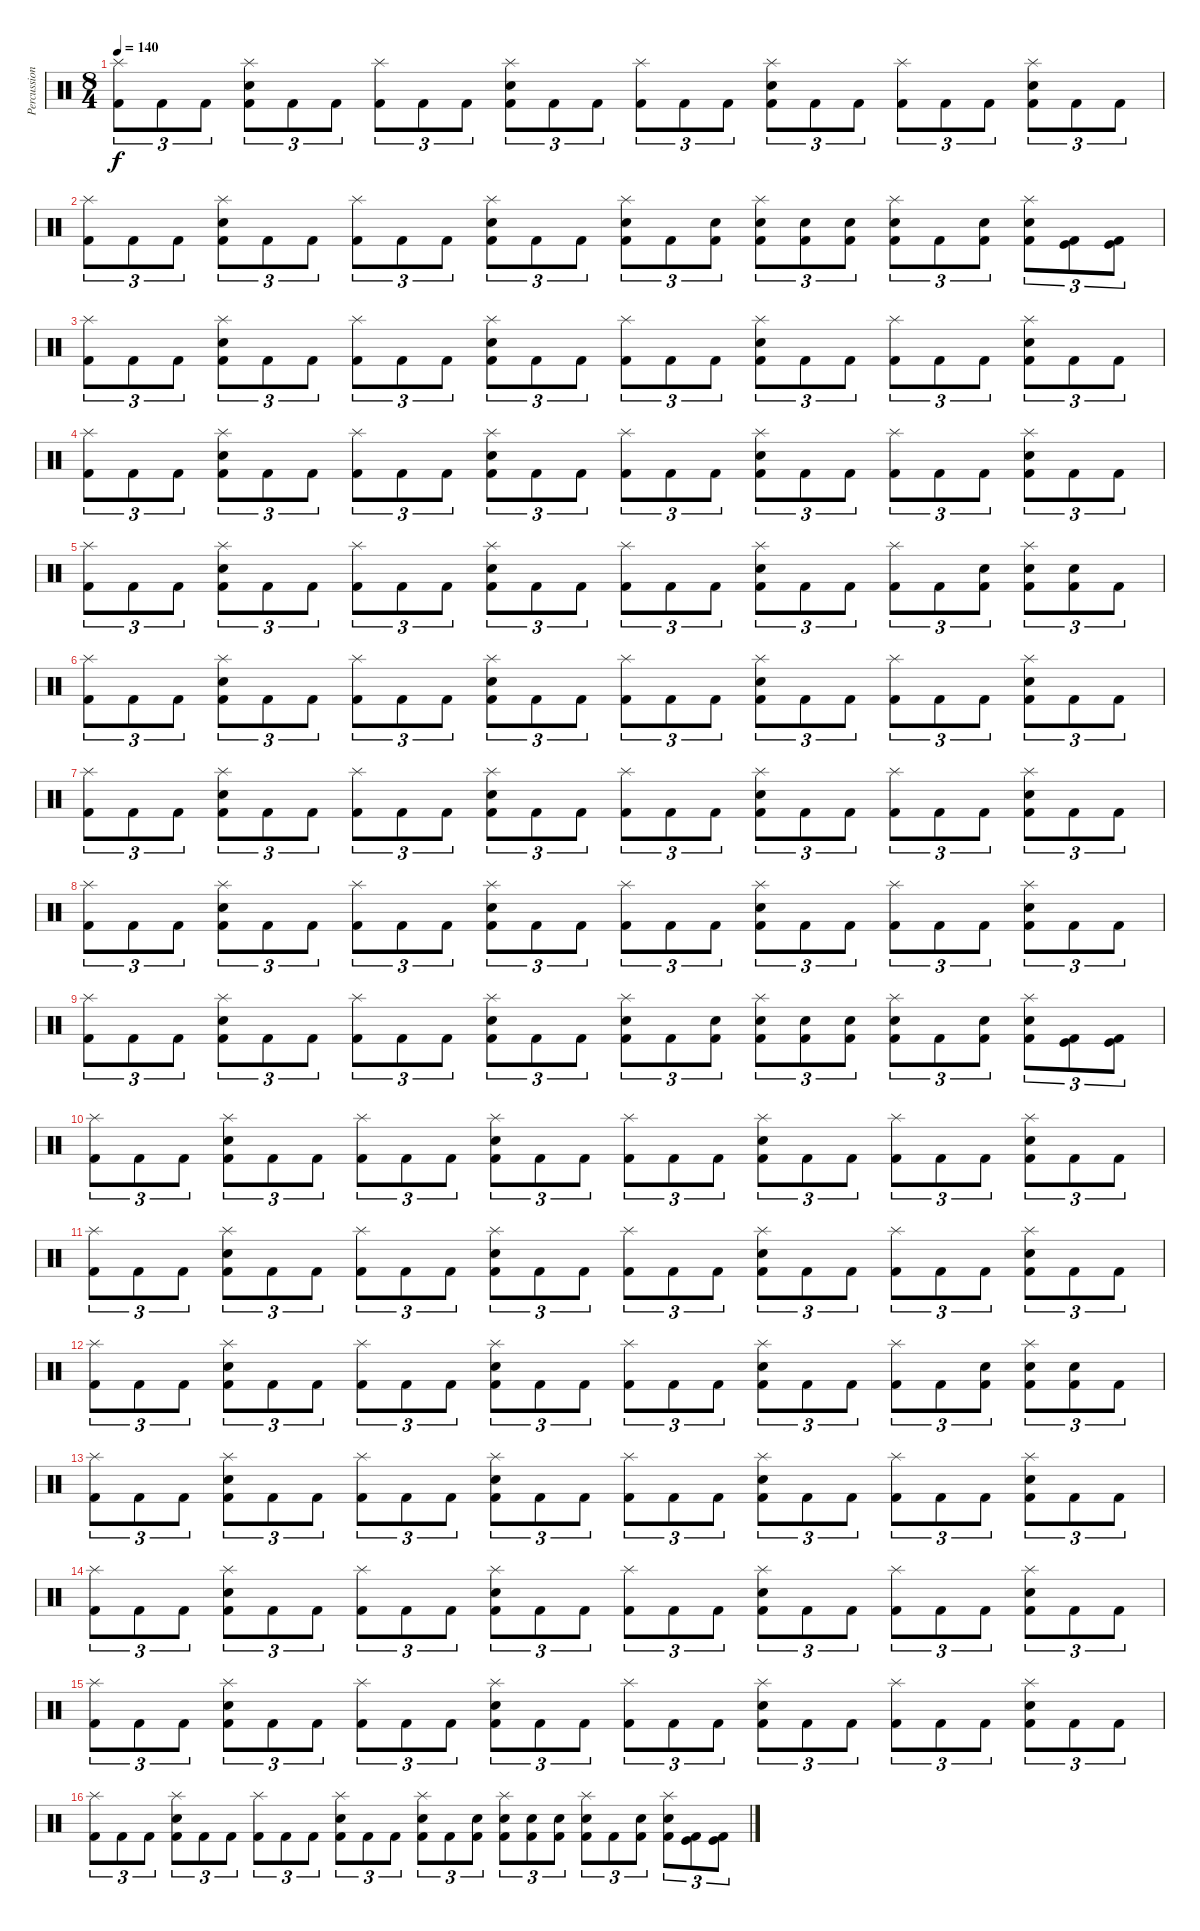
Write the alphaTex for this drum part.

\track ("Percussion" "Percussion") {instrument percussion}
\staff {score}
\articulation defaults
\ts (8 4)
\tempo 140
\clef neutral
\ks c
("Splash (hit)" "Kick (hit) 2").8{tu (3 2) dy f} "Kick (hit) 2".8{tu (3 2)} "Kick (hit) 2".8{tu (3 2)} ("Splash (hit)" "Snare (hit) 2" "Kick (hit) 2").8{tu (3 2)} "Kick (hit) 2".8{tu (3 2)} "Kick (hit) 2".8{tu (3 2)} ("Splash (hit)" "Kick (hit) 2").8{tu (3 2)} "Kick (hit) 2".8{tu (3 2)} "Kick (hit) 2".8{tu (3 2)} ("Splash (hit)" "Snare (hit) 2" "Kick (hit) 2").8{tu (3 2)} "Kick (hit) 2".8{tu (3 2)} "Kick (hit) 2".8{tu (3 2)} ("Splash (hit)" "Kick (hit) 2").8{tu (3 2)} "Kick (hit) 2".8{tu (3 2)} "Kick (hit) 2".8{tu (3 2)} ("Splash (hit)" "Snare (hit) 2" "Kick (hit) 2").8{tu (3 2)} "Kick (hit) 2".8{tu (3 2)} "Kick (hit) 2".8{tu (3 2)} ("Splash (hit)" "Kick (hit) 2").8{tu (3 2)} "Kick (hit) 2".8{tu (3 2)} "Kick (hit) 2".8{tu (3 2)} ("Splash (hit)" "Snare (hit) 2" "Kick (hit) 2").8{tu (3 2)} "Kick (hit) 2".8{tu (3 2)} "Kick (hit) 2".8{tu (3 2)} |
("Splash (hit)" "Kick (hit) 2").8{tu (3 2)} "Kick (hit) 2".8{tu (3 2)} "Kick (hit) 2".8{tu (3 2)} ("Splash (hit)" "Snare (hit) 2" "Kick (hit) 2").8{tu (3 2)} "Kick (hit) 2".8{tu (3 2)} "Kick (hit) 2".8{tu (3 2)} ("Splash (hit)" "Kick (hit) 2").8{tu (3 2)} "Kick (hit) 2".8{tu (3 2)} "Kick (hit) 2".8{tu (3 2)} ("Splash (hit)" "Snare (hit) 2" "Kick (hit) 2").8{tu (3 2)} "Kick (hit) 2".8{tu (3 2)} "Kick (hit) 2".8{tu (3 2)} ("Splash (hit)" "Snare (hit) 2" "Kick (hit) 2").8{tu (3 2)} "Kick (hit) 2".8{tu (3 2)} ("Snare (hit) 2" "Kick (hit) 2").8{tu (3 2)} ("Splash (hit)" "Snare (hit) 2" "Kick (hit) 2").8{tu (3 2)} ("Snare (hit) 2" "Kick (hit) 2").8{tu (3 2)} ("Snare (hit) 2" "Kick (hit) 2").8{tu (3 2)} ("Splash (hit)" "Snare (hit) 2" "Kick (hit) 2").8{tu (3 2)} "Kick (hit) 2".8{tu (3 2)} ("Snare (hit) 2" "Kick (hit) 2").8{tu (3 2)} ("Splash (hit)" "Snare (hit) 2" "Kick (hit) 2").8{tu (3 2)} ("Kick (hit)" "Kick (hit) 2").8{tu (3 2)} ("Kick (hit)" "Kick (hit) 2").8{tu (3 2)} |
("Splash (hit)" "Kick (hit) 2").8{tu (3 2)} "Kick (hit) 2".8{tu (3 2)} "Kick (hit) 2".8{tu (3 2)} ("Splash (hit)" "Snare (hit) 2" "Kick (hit) 2").8{tu (3 2)} "Kick (hit) 2".8{tu (3 2)} "Kick (hit) 2".8{tu (3 2)} ("Splash (hit)" "Kick (hit) 2").8{tu (3 2)} "Kick (hit) 2".8{tu (3 2)} "Kick (hit) 2".8{tu (3 2)} ("Splash (hit)" "Snare (hit) 2" "Kick (hit) 2").8{tu (3 2)} "Kick (hit) 2".8{tu (3 2)} "Kick (hit) 2".8{tu (3 2)} ("Splash (hit)" "Kick (hit) 2").8{tu (3 2)} "Kick (hit) 2".8{tu (3 2)} "Kick (hit) 2".8{tu (3 2)} ("Splash (hit)" "Snare (hit) 2" "Kick (hit) 2").8{tu (3 2)} "Kick (hit) 2".8{tu (3 2)} "Kick (hit) 2".8{tu (3 2)} ("Splash (hit)" "Kick (hit) 2").8{tu (3 2)} "Kick (hit) 2".8{tu (3 2)} "Kick (hit) 2".8{tu (3 2)} ("Splash (hit)" "Snare (hit) 2" "Kick (hit) 2").8{tu (3 2)} "Kick (hit) 2".8{tu (3 2)} "Kick (hit) 2".8{tu (3 2)} |
("Splash (hit)" "Kick (hit) 2").8{tu (3 2)} "Kick (hit) 2".8{tu (3 2)} "Kick (hit) 2".8{tu (3 2)} ("Splash (hit)" "Snare (hit) 2" "Kick (hit) 2").8{tu (3 2)} "Kick (hit) 2".8{tu (3 2)} "Kick (hit) 2".8{tu (3 2)} ("Splash (hit)" "Kick (hit) 2").8{tu (3 2)} "Kick (hit) 2".8{tu (3 2)} "Kick (hit) 2".8{tu (3 2)} ("Splash (hit)" "Snare (hit) 2" "Kick (hit) 2").8{tu (3 2)} "Kick (hit) 2".8{tu (3 2)} "Kick (hit) 2".8{tu (3 2)} ("Splash (hit)" "Kick (hit) 2").8{tu (3 2)} "Kick (hit) 2".8{tu (3 2)} "Kick (hit) 2".8{tu (3 2)} ("Splash (hit)" "Snare (hit) 2" "Kick (hit) 2").8{tu (3 2)} "Kick (hit) 2".8{tu (3 2)} "Kick (hit) 2".8{tu (3 2)} ("Splash (hit)" "Kick (hit) 2").8{tu (3 2)} "Kick (hit) 2".8{tu (3 2)} "Kick (hit) 2".8{tu (3 2)} ("Splash (hit)" "Snare (hit) 2" "Kick (hit) 2").8{tu (3 2)} "Kick (hit) 2".8{tu (3 2)} "Kick (hit) 2".8{tu (3 2)} |
("Splash (hit)" "Kick (hit) 2").8{tu (3 2)} "Kick (hit) 2".8{tu (3 2)} "Kick (hit) 2".8{tu (3 2)} ("Splash (hit)" "Snare (hit) 2" "Kick (hit) 2").8{tu (3 2)} "Kick (hit) 2".8{tu (3 2)} "Kick (hit) 2".8{tu (3 2)} ("Splash (hit)" "Kick (hit) 2").8{tu (3 2)} "Kick (hit) 2".8{tu (3 2)} "Kick (hit) 2".8{tu (3 2)} ("Splash (hit)" "Snare (hit) 2" "Kick (hit) 2").8{tu (3 2)} "Kick (hit) 2".8{tu (3 2)} "Kick (hit) 2".8{tu (3 2)} ("Splash (hit)" "Kick (hit) 2").8{tu (3 2)} "Kick (hit) 2".8{tu (3 2)} "Kick (hit) 2".8{tu (3 2)} ("Splash (hit)" "Snare (hit) 2" "Kick (hit) 2").8{tu (3 2)} "Kick (hit) 2".8{tu (3 2)} "Kick (hit) 2".8{tu (3 2)} ("Splash (hit)" "Kick (hit) 2").8{tu (3 2)} "Kick (hit) 2".8{tu (3 2)} ("Snare (hit) 2" "Kick (hit) 2").8{tu (3 2)} ("Splash (hit)" "Snare (hit) 2" "Kick (hit) 2").8{tu (3 2)} ("Snare (hit) 2" "Kick (hit) 2").8{tu (3 2)} "Kick (hit) 2".8{tu (3 2)} |
("Splash (hit)" "Kick (hit) 2").8{tu (3 2)} "Kick (hit) 2".8{tu (3 2)} "Kick (hit) 2".8{tu (3 2)} ("Splash (hit)" "Snare (hit) 2" "Kick (hit) 2").8{tu (3 2)} "Kick (hit) 2".8{tu (3 2)} "Kick (hit) 2".8{tu (3 2)} ("Splash (hit)" "Kick (hit) 2").8{tu (3 2)} "Kick (hit) 2".8{tu (3 2)} "Kick (hit) 2".8{tu (3 2)} ("Splash (hit)" "Snare (hit) 2" "Kick (hit) 2").8{tu (3 2)} "Kick (hit) 2".8{tu (3 2)} "Kick (hit) 2".8{tu (3 2)} ("Splash (hit)" "Kick (hit) 2").8{tu (3 2)} "Kick (hit) 2".8{tu (3 2)} "Kick (hit) 2".8{tu (3 2)} ("Splash (hit)" "Snare (hit) 2" "Kick (hit) 2").8{tu (3 2)} "Kick (hit) 2".8{tu (3 2)} "Kick (hit) 2".8{tu (3 2)} ("Splash (hit)" "Kick (hit) 2").8{tu (3 2)} "Kick (hit) 2".8{tu (3 2)} "Kick (hit) 2".8{tu (3 2)} ("Splash (hit)" "Snare (hit) 2" "Kick (hit) 2").8{tu (3 2)} "Kick (hit) 2".8{tu (3 2)} "Kick (hit) 2".8{tu (3 2)} |
("Splash (hit)" "Kick (hit) 2").8{tu (3 2)} "Kick (hit) 2".8{tu (3 2)} "Kick (hit) 2".8{tu (3 2)} ("Splash (hit)" "Snare (hit) 2" "Kick (hit) 2").8{tu (3 2)} "Kick (hit) 2".8{tu (3 2)} "Kick (hit) 2".8{tu (3 2)} ("Splash (hit)" "Kick (hit) 2").8{tu (3 2)} "Kick (hit) 2".8{tu (3 2)} "Kick (hit) 2".8{tu (3 2)} ("Splash (hit)" "Snare (hit) 2" "Kick (hit) 2").8{tu (3 2)} "Kick (hit) 2".8{tu (3 2)} "Kick (hit) 2".8{tu (3 2)} ("Splash (hit)" "Kick (hit) 2").8{tu (3 2)} "Kick (hit) 2".8{tu (3 2)} "Kick (hit) 2".8{tu (3 2)} ("Splash (hit)" "Snare (hit) 2" "Kick (hit) 2").8{tu (3 2)} "Kick (hit) 2".8{tu (3 2)} "Kick (hit) 2".8{tu (3 2)} ("Splash (hit)" "Kick (hit) 2").8{tu (3 2)} "Kick (hit) 2".8{tu (3 2)} "Kick (hit) 2".8{tu (3 2)} ("Splash (hit)" "Snare (hit) 2" "Kick (hit) 2").8{tu (3 2)} "Kick (hit) 2".8{tu (3 2)} "Kick (hit) 2".8{tu (3 2)} |
("Splash (hit)" "Kick (hit) 2").8{tu (3 2)} "Kick (hit) 2".8{tu (3 2)} "Kick (hit) 2".8{tu (3 2)} ("Splash (hit)" "Snare (hit) 2" "Kick (hit) 2").8{tu (3 2)} "Kick (hit) 2".8{tu (3 2)} "Kick (hit) 2".8{tu (3 2)} ("Splash (hit)" "Kick (hit) 2").8{tu (3 2)} "Kick (hit) 2".8{tu (3 2)} "Kick (hit) 2".8{tu (3 2)} ("Splash (hit)" "Snare (hit) 2" "Kick (hit) 2").8{tu (3 2)} "Kick (hit) 2".8{tu (3 2)} "Kick (hit) 2".8{tu (3 2)} ("Splash (hit)" "Kick (hit) 2").8{tu (3 2)} "Kick (hit) 2".8{tu (3 2)} "Kick (hit) 2".8{tu (3 2)} ("Splash (hit)" "Snare (hit) 2" "Kick (hit) 2").8{tu (3 2)} "Kick (hit) 2".8{tu (3 2)} "Kick (hit) 2".8{tu (3 2)} ("Splash (hit)" "Kick (hit) 2").8{tu (3 2)} "Kick (hit) 2".8{tu (3 2)} "Kick (hit) 2".8{tu (3 2)} ("Splash (hit)" "Snare (hit) 2" "Kick (hit) 2").8{tu (3 2)} "Kick (hit) 2".8{tu (3 2)} "Kick (hit) 2".8{tu (3 2)} |
("Splash (hit)" "Kick (hit) 2").8{tu (3 2)} "Kick (hit) 2".8{tu (3 2)} "Kick (hit) 2".8{tu (3 2)} ("Splash (hit)" "Snare (hit) 2" "Kick (hit) 2").8{tu (3 2)} "Kick (hit) 2".8{tu (3 2)} "Kick (hit) 2".8{tu (3 2)} ("Splash (hit)" "Kick (hit) 2").8{tu (3 2)} "Kick (hit) 2".8{tu (3 2)} "Kick (hit) 2".8{tu (3 2)} ("Splash (hit)" "Snare (hit) 2" "Kick (hit) 2").8{tu (3 2)} "Kick (hit) 2".8{tu (3 2)} "Kick (hit) 2".8{tu (3 2)} ("Splash (hit)" "Snare (hit) 2" "Kick (hit) 2").8{tu (3 2)} "Kick (hit) 2".8{tu (3 2)} ("Snare (hit) 2" "Kick (hit) 2").8{tu (3 2)} ("Splash (hit)" "Snare (hit) 2" "Kick (hit) 2").8{tu (3 2)} ("Snare (hit) 2" "Kick (hit) 2").8{tu (3 2)} ("Snare (hit) 2" "Kick (hit) 2").8{tu (3 2)} ("Splash (hit)" "Snare (hit) 2" "Kick (hit) 2").8{tu (3 2)} "Kick (hit) 2".8{tu (3 2)} ("Snare (hit) 2" "Kick (hit) 2").8{tu (3 2)} ("Splash (hit)" "Snare (hit) 2" "Kick (hit) 2").8{tu (3 2)} ("Kick (hit)" "Kick (hit) 2").8{tu (3 2)} ("Kick (hit)" "Kick (hit) 2").8{tu (3 2)} |
("Splash (hit)" "Kick (hit) 2").8{tu (3 2)} "Kick (hit) 2".8{tu (3 2)} "Kick (hit) 2".8{tu (3 2)} ("Splash (hit)" "Snare (hit) 2" "Kick (hit) 2").8{tu (3 2)} "Kick (hit) 2".8{tu (3 2)} "Kick (hit) 2".8{tu (3 2)} ("Splash (hit)" "Kick (hit) 2").8{tu (3 2)} "Kick (hit) 2".8{tu (3 2)} "Kick (hit) 2".8{tu (3 2)} ("Splash (hit)" "Snare (hit) 2" "Kick (hit) 2").8{tu (3 2)} "Kick (hit) 2".8{tu (3 2)} "Kick (hit) 2".8{tu (3 2)} ("Splash (hit)" "Kick (hit) 2").8{tu (3 2)} "Kick (hit) 2".8{tu (3 2)} "Kick (hit) 2".8{tu (3 2)} ("Splash (hit)" "Snare (hit) 2" "Kick (hit) 2").8{tu (3 2)} "Kick (hit) 2".8{tu (3 2)} "Kick (hit) 2".8{tu (3 2)} ("Splash (hit)" "Kick (hit) 2").8{tu (3 2)} "Kick (hit) 2".8{tu (3 2)} "Kick (hit) 2".8{tu (3 2)} ("Splash (hit)" "Snare (hit) 2" "Kick (hit) 2").8{tu (3 2)} "Kick (hit) 2".8{tu (3 2)} "Kick (hit) 2".8{tu (3 2)} |
("Splash (hit)" "Kick (hit) 2").8{tu (3 2)} "Kick (hit) 2".8{tu (3 2)} "Kick (hit) 2".8{tu (3 2)} ("Splash (hit)" "Snare (hit) 2" "Kick (hit) 2").8{tu (3 2)} "Kick (hit) 2".8{tu (3 2)} "Kick (hit) 2".8{tu (3 2)} ("Splash (hit)" "Kick (hit) 2").8{tu (3 2)} "Kick (hit) 2".8{tu (3 2)} "Kick (hit) 2".8{tu (3 2)} ("Splash (hit)" "Snare (hit) 2" "Kick (hit) 2").8{tu (3 2)} "Kick (hit) 2".8{tu (3 2)} "Kick (hit) 2".8{tu (3 2)} ("Splash (hit)" "Kick (hit) 2").8{tu (3 2)} "Kick (hit) 2".8{tu (3 2)} "Kick (hit) 2".8{tu (3 2)} ("Splash (hit)" "Snare (hit) 2" "Kick (hit) 2").8{tu (3 2)} "Kick (hit) 2".8{tu (3 2)} "Kick (hit) 2".8{tu (3 2)} ("Splash (hit)" "Kick (hit) 2").8{tu (3 2)} "Kick (hit) 2".8{tu (3 2)} "Kick (hit) 2".8{tu (3 2)} ("Splash (hit)" "Snare (hit) 2" "Kick (hit) 2").8{tu (3 2)} "Kick (hit) 2".8{tu (3 2)} "Kick (hit) 2".8{tu (3 2)} |
("Splash (hit)" "Kick (hit) 2").8{tu (3 2)} "Kick (hit) 2".8{tu (3 2)} "Kick (hit) 2".8{tu (3 2)} ("Splash (hit)" "Snare (hit) 2" "Kick (hit) 2").8{tu (3 2)} "Kick (hit) 2".8{tu (3 2)} "Kick (hit) 2".8{tu (3 2)} ("Splash (hit)" "Kick (hit) 2").8{tu (3 2)} "Kick (hit) 2".8{tu (3 2)} "Kick (hit) 2".8{tu (3 2)} ("Splash (hit)" "Snare (hit) 2" "Kick (hit) 2").8{tu (3 2)} "Kick (hit) 2".8{tu (3 2)} "Kick (hit) 2".8{tu (3 2)} ("Splash (hit)" "Kick (hit) 2").8{tu (3 2)} "Kick (hit) 2".8{tu (3 2)} "Kick (hit) 2".8{tu (3 2)} ("Splash (hit)" "Snare (hit) 2" "Kick (hit) 2").8{tu (3 2)} "Kick (hit) 2".8{tu (3 2)} "Kick (hit) 2".8{tu (3 2)} ("Splash (hit)" "Kick (hit) 2").8{tu (3 2)} "Kick (hit) 2".8{tu (3 2)} ("Snare (hit) 2" "Kick (hit) 2").8{tu (3 2)} ("Splash (hit)" "Snare (hit) 2" "Kick (hit) 2").8{tu (3 2)} ("Snare (hit) 2" "Kick (hit) 2").8{tu (3 2)} "Kick (hit) 2".8{tu (3 2)} |
("Splash (hit)" "Kick (hit) 2").8{tu (3 2)} "Kick (hit) 2".8{tu (3 2)} "Kick (hit) 2".8{tu (3 2)} ("Splash (hit)" "Snare (hit) 2" "Kick (hit) 2").8{tu (3 2)} "Kick (hit) 2".8{tu (3 2)} "Kick (hit) 2".8{tu (3 2)} ("Splash (hit)" "Kick (hit) 2").8{tu (3 2)} "Kick (hit) 2".8{tu (3 2)} "Kick (hit) 2".8{tu (3 2)} ("Splash (hit)" "Snare (hit) 2" "Kick (hit) 2").8{tu (3 2)} "Kick (hit) 2".8{tu (3 2)} "Kick (hit) 2".8{tu (3 2)} ("Splash (hit)" "Kick (hit) 2").8{tu (3 2)} "Kick (hit) 2".8{tu (3 2)} "Kick (hit) 2".8{tu (3 2)} ("Splash (hit)" "Snare (hit) 2" "Kick (hit) 2").8{tu (3 2)} "Kick (hit) 2".8{tu (3 2)} "Kick (hit) 2".8{tu (3 2)} ("Splash (hit)" "Kick (hit) 2").8{tu (3 2)} "Kick (hit) 2".8{tu (3 2)} "Kick (hit) 2".8{tu (3 2)} ("Splash (hit)" "Snare (hit) 2" "Kick (hit) 2").8{tu (3 2)} "Kick (hit) 2".8{tu (3 2)} "Kick (hit) 2".8{tu (3 2)} |
("Splash (hit)" "Kick (hit) 2").8{tu (3 2)} "Kick (hit) 2".8{tu (3 2)} "Kick (hit) 2".8{tu (3 2)} ("Splash (hit)" "Snare (hit) 2" "Kick (hit) 2").8{tu (3 2)} "Kick (hit) 2".8{tu (3 2)} "Kick (hit) 2".8{tu (3 2)} ("Splash (hit)" "Kick (hit) 2").8{tu (3 2)} "Kick (hit) 2".8{tu (3 2)} "Kick (hit) 2".8{tu (3 2)} ("Splash (hit)" "Snare (hit) 2" "Kick (hit) 2").8{tu (3 2)} "Kick (hit) 2".8{tu (3 2)} "Kick (hit) 2".8{tu (3 2)} ("Splash (hit)" "Kick (hit) 2").8{tu (3 2)} "Kick (hit) 2".8{tu (3 2)} "Kick (hit) 2".8{tu (3 2)} ("Splash (hit)" "Snare (hit) 2" "Kick (hit) 2").8{tu (3 2)} "Kick (hit) 2".8{tu (3 2)} "Kick (hit) 2".8{tu (3 2)} ("Splash (hit)" "Kick (hit) 2").8{tu (3 2)} "Kick (hit) 2".8{tu (3 2)} "Kick (hit) 2".8{tu (3 2)} ("Splash (hit)" "Snare (hit) 2" "Kick (hit) 2").8{tu (3 2)} "Kick (hit) 2".8{tu (3 2)} "Kick (hit) 2".8{tu (3 2)} |
("Splash (hit)" "Kick (hit) 2").8{tu (3 2)} "Kick (hit) 2".8{tu (3 2)} "Kick (hit) 2".8{tu (3 2)} ("Splash (hit)" "Snare (hit) 2" "Kick (hit) 2").8{tu (3 2)} "Kick (hit) 2".8{tu (3 2)} "Kick (hit) 2".8{tu (3 2)} ("Splash (hit)" "Kick (hit) 2").8{tu (3 2)} "Kick (hit) 2".8{tu (3 2)} "Kick (hit) 2".8{tu (3 2)} ("Splash (hit)" "Snare (hit) 2" "Kick (hit) 2").8{tu (3 2)} "Kick (hit) 2".8{tu (3 2)} "Kick (hit) 2".8{tu (3 2)} ("Splash (hit)" "Kick (hit) 2").8{tu (3 2)} "Kick (hit) 2".8{tu (3 2)} "Kick (hit) 2".8{tu (3 2)} ("Splash (hit)" "Snare (hit) 2" "Kick (hit) 2").8{tu (3 2)} "Kick (hit) 2".8{tu (3 2)} "Kick (hit) 2".8{tu (3 2)} ("Splash (hit)" "Kick (hit) 2").8{tu (3 2)} "Kick (hit) 2".8{tu (3 2)} "Kick (hit) 2".8{tu (3 2)} ("Splash (hit)" "Snare (hit) 2" "Kick (hit) 2").8{tu (3 2)} "Kick (hit) 2".8{tu (3 2)} "Kick (hit) 2".8{tu (3 2)} |
("Splash (hit)" "Kick (hit) 2").8{tu (3 2)} "Kick (hit) 2".8{tu (3 2)} "Kick (hit) 2".8{tu (3 2)} ("Splash (hit)" "Snare (hit) 2" "Kick (hit) 2").8{tu (3 2)} "Kick (hit) 2".8{tu (3 2)} "Kick (hit) 2".8{tu (3 2)} ("Splash (hit)" "Kick (hit) 2").8{tu (3 2)} "Kick (hit) 2".8{tu (3 2)} "Kick (hit) 2".8{tu (3 2)} ("Splash (hit)" "Snare (hit) 2" "Kick (hit) 2").8{tu (3 2)} "Kick (hit) 2".8{tu (3 2)} "Kick (hit) 2".8{tu (3 2)} ("Splash (hit)" "Snare (hit) 2" "Kick (hit) 2").8{tu (3 2)} "Kick (hit) 2".8{tu (3 2)} ("Snare (hit) 2" "Kick (hit) 2").8{tu (3 2)} ("Splash (hit)" "Snare (hit) 2" "Kick (hit) 2").8{tu (3 2)} ("Snare (hit) 2" "Kick (hit) 2").8{tu (3 2)} ("Snare (hit) 2" "Kick (hit) 2").8{tu (3 2)} ("Splash (hit)" "Snare (hit) 2" "Kick (hit) 2").8{tu (3 2)} "Kick (hit) 2".8{tu (3 2)} ("Snare (hit) 2" "Kick (hit) 2").8{tu (3 2)} ("Splash (hit)" "Snare (hit) 2" "Kick (hit) 2").8{tu (3 2)} ("Kick (hit)" "Kick (hit) 2").8{tu (3 2)} ("Kick (hit)" "Kick (hit) 2").8{tu (3 2)}
